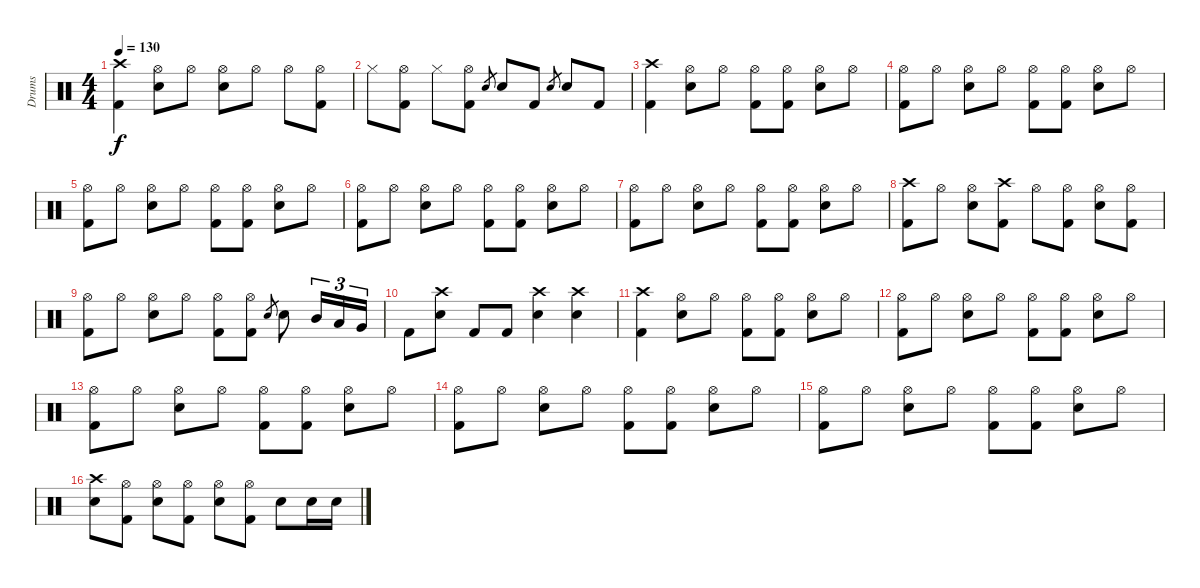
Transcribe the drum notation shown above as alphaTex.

\track ("Drums" "Drums") {instrument percussion}
\staff {score}
\articulation defaults
\ts (4 4)
\tempo 130
\clef neutral
\ks c
("Crash high (hit)" "Kick (hit) 2").4{dy f} ("Hi-Hat (open)" "Electric Snare (hit)").8 "Hi-Hat (open)".8 ("Hi-Hat (open)" "Electric Snare (hit)").8 "Hi-Hat (open)".8 "Hi-Hat (open)".8 ("Hi-Hat (open)" "Kick (hit) 2").8 |
"Hi-Hat (closed)".8 ("Hi-Hat (open)" "Kick (hit) 2").8 "Hi-Hat (closed)".8 ("Hi-Hat (open)" "Kick (hit) 2").8 "Electric Snare (hit)".8{gr} "Electric Snare (hit)".8 "Kick (hit) 2".8 "Electric Snare (hit)".8{gr} "Electric Snare (hit)".8 "Kick (hit) 2".8 |
("Crash high (hit)" "Kick (hit) 2").4 ("Hi-Hat (open)" "Electric Snare (hit)").8 "Hi-Hat (open)".8 ("Hi-Hat (open)" "Kick (hit) 2").8 ("Hi-Hat (open)" "Kick (hit) 2").8 ("Hi-Hat (open)" "Electric Snare (hit)").8 "Hi-Hat (open)".8 |
("Hi-Hat (open)" "Kick (hit) 2").8 "Hi-Hat (open)".8 ("Hi-Hat (open)" "Electric Snare (hit)").8 "Hi-Hat (open)".8 ("Hi-Hat (open)" "Kick (hit) 2").8 ("Hi-Hat (open)" "Kick (hit) 2").8 ("Hi-Hat (open)" "Electric Snare (hit)").8 "Hi-Hat (open)".8 |
("Hi-Hat (open)" "Kick (hit) 2").8 "Hi-Hat (open)".8 ("Hi-Hat (open)" "Electric Snare (hit)").8 "Hi-Hat (open)".8 ("Hi-Hat (open)" "Kick (hit) 2").8 ("Hi-Hat (open)" "Kick (hit) 2").8 ("Hi-Hat (open)" "Electric Snare (hit)").8 "Hi-Hat (open)".8 |
("Hi-Hat (open)" "Kick (hit) 2").8 "Hi-Hat (open)".8 ("Hi-Hat (open)" "Electric Snare (hit)").8 "Hi-Hat (open)".8 ("Hi-Hat (open)" "Kick (hit) 2").8 ("Hi-Hat (open)" "Kick (hit) 2").8 ("Hi-Hat (open)" "Electric Snare (hit)").8 "Hi-Hat (open)".8 |
("Hi-Hat (open)" "Kick (hit) 2").8 "Hi-Hat (open)".8 ("Hi-Hat (open)" "Electric Snare (hit)").8 "Hi-Hat (open)".8 ("Hi-Hat (open)" "Kick (hit) 2").8 ("Hi-Hat (open)" "Kick (hit) 2").8 ("Hi-Hat (open)" "Electric Snare (hit)").8 "Hi-Hat (open)".8 |
("Crash high (hit)" "Kick (hit) 2").8 "Hi-Hat (open)".8 ("Hi-Hat (open)" "Electric Snare (hit)").8 ("Crash high (hit)" "Kick (hit) 2").8 "Hi-Hat (open)".8 ("Hi-Hat (open)" "Kick (hit) 2").8 ("Hi-Hat (open)" "Electric Snare (hit)").8 ("Hi-Hat (open)" "Kick (hit) 2").8 |
("Hi-Hat (open)" "Kick (hit) 2").8 "Hi-Hat (open)".8 ("Hi-Hat (open)" "Electric Snare (hit)").8 "Hi-Hat (open)".8 ("Hi-Hat (open)" "Kick (hit) 2").8 ("Hi-Hat (open)" "Kick (hit) 2").8 "Electric Snare (hit)".8{gr} "Electric Snare (hit)".8 "Mid Tom (hit)".16{tu (3 2)} "Low Tom (hit)".16{tu (3 2)} "Very Low Tom (hit)".16{tu (3 2)} |
"Kick (hit) 2".8 ("Crash high (hit)" "Electric Snare (hit)").8 "Kick (hit) 2".8 "Kick (hit) 2".8 ("Crash high (hit)" "Electric Snare (hit)").4 ("Crash high (hit)" "Electric Snare (hit)").4 |
("Crash high (hit)" "Kick (hit) 2").4 ("Hi-Hat (open)" "Electric Snare (hit)").8 "Hi-Hat (open)".8 ("Hi-Hat (open)" "Kick (hit) 2").8 ("Hi-Hat (open)" "Kick (hit) 2").8 ("Hi-Hat (open)" "Electric Snare (hit)").8 "Hi-Hat (open)".8 |
("Hi-Hat (open)" "Kick (hit) 2").8 "Hi-Hat (open)".8 ("Hi-Hat (open)" "Electric Snare (hit)").8 "Hi-Hat (open)".8 ("Hi-Hat (open)" "Kick (hit) 2").8 ("Hi-Hat (open)" "Kick (hit) 2").8 ("Hi-Hat (open)" "Electric Snare (hit)").8 "Hi-Hat (open)".8 |
("Hi-Hat (open)" "Kick (hit) 2").8 "Hi-Hat (open)".8 ("Hi-Hat (open)" "Electric Snare (hit)").8 "Hi-Hat (open)".8 ("Hi-Hat (open)" "Kick (hit) 2").8 ("Hi-Hat (open)" "Kick (hit) 2").8 ("Hi-Hat (open)" "Electric Snare (hit)").8 "Hi-Hat (open)".8 |
("Hi-Hat (open)" "Kick (hit) 2").8 "Hi-Hat (open)".8 ("Hi-Hat (open)" "Electric Snare (hit)").8 "Hi-Hat (open)".8 ("Hi-Hat (open)" "Kick (hit) 2").8 ("Hi-Hat (open)" "Kick (hit) 2").8 ("Hi-Hat (open)" "Electric Snare (hit)").8 "Hi-Hat (open)".8 |
("Hi-Hat (open)" "Kick (hit) 2").8 "Hi-Hat (open)".8 ("Hi-Hat (open)" "Electric Snare (hit)").8 "Hi-Hat (open)".8 ("Hi-Hat (open)" "Kick (hit) 2").8 ("Hi-Hat (open)" "Kick (hit) 2").8 ("Hi-Hat (open)" "Electric Snare (hit)").8 "Hi-Hat (open)".8 |
("Crash high (hit)" "Electric Snare (hit)").8 ("Hi-Hat (open)" "Kick (hit) 2").8 ("Hi-Hat (open)" "Electric Snare (hit)").8 ("Hi-Hat (open)" "Kick (hit) 2").8 ("Hi-Hat (open)" "Electric Snare (hit)").8 ("Hi-Hat (open)" "Kick (hit) 2").8 "Electric Snare (hit)".8 "Electric Snare (hit)".16 "Electric Snare (hit)".16
